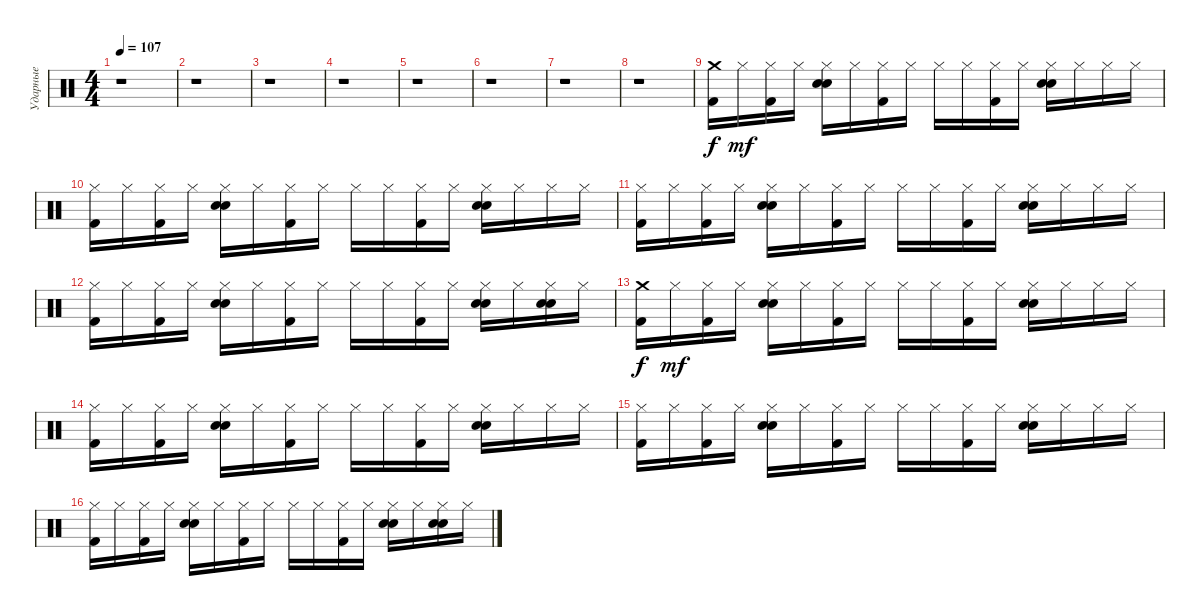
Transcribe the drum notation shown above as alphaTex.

\track ("Ударные" "Ударные") {instrument percussion}
\staff {score}
\articulation defaults
\ts (4 4)
\tempo 107
\clef neutral
\ks c
r.1{dy f} |
r.1 |
r.1 |
r.1 |
r.1 |
r.1 |
r.1 |
r.1 |
("Kick (hit) 2" "Crash medium (hit)").16 "Hi-Hat (closed)".16{dy mf} ("Kick (hit) 2" "Hi-Hat (closed)").16 "Hi-Hat (closed)".16 ("Snare (hit) 2" "Hand Clap (hit)" "Hi-Hat (closed)").16 "Hi-Hat (closed)".16 ("Kick (hit) 2" "Hi-Hat (closed)").16 "Hi-Hat (closed)".16 "Hi-Hat (closed)".16 "Hi-Hat (closed)".16 ("Kick (hit) 2" "Hi-Hat (closed)").16 "Hi-Hat (closed)".16 ("Snare (hit) 2" "Hand Clap (hit)" "Hi-Hat (closed)").16 "Hi-Hat (closed)".16 "Hi-Hat (closed)".16 "Hi-Hat (closed)".16 |
("Kick (hit) 2" "Hi-Hat (closed)").16 "Hi-Hat (closed)".16 ("Kick (hit) 2" "Hi-Hat (closed)").16 "Hi-Hat (closed)".16 ("Snare (hit) 2" "Hand Clap (hit)" "Hi-Hat (closed)").16 "Hi-Hat (closed)".16 ("Kick (hit) 2" "Hi-Hat (closed)").16 "Hi-Hat (closed)".16 "Hi-Hat (closed)".16 "Hi-Hat (closed)".16 ("Kick (hit) 2" "Hi-Hat (closed)").16 "Hi-Hat (closed)".16 ("Snare (hit) 2" "Hand Clap (hit)" "Hi-Hat (closed)").16 "Hi-Hat (closed)".16 "Hi-Hat (closed)".16 "Hi-Hat (closed)".16 |
("Kick (hit) 2" "Hi-Hat (closed)").16 "Hi-Hat (closed)".16 ("Kick (hit) 2" "Hi-Hat (closed)").16 "Hi-Hat (closed)".16 ("Snare (hit) 2" "Hand Clap (hit)" "Hi-Hat (closed)").16 "Hi-Hat (closed)".16 ("Kick (hit) 2" "Hi-Hat (closed)").16 "Hi-Hat (closed)".16 "Hi-Hat (closed)".16 "Hi-Hat (closed)".16 ("Kick (hit) 2" "Hi-Hat (closed)").16 "Hi-Hat (closed)".16 ("Snare (hit) 2" "Hand Clap (hit)" "Hi-Hat (closed)").16 "Hi-Hat (closed)".16 "Hi-Hat (closed)".16 "Hi-Hat (closed)".16 |
("Kick (hit) 2" "Hi-Hat (closed)").16 "Hi-Hat (closed)".16 ("Kick (hit) 2" "Hi-Hat (closed)").16 "Hi-Hat (closed)".16 ("Snare (hit) 2" "Hand Clap (hit)" "Hi-Hat (closed)").16 "Hi-Hat (closed)".16 ("Kick (hit) 2" "Hi-Hat (closed)").16 "Hi-Hat (closed)".16 "Hi-Hat (closed)".16 "Hi-Hat (closed)".16 ("Kick (hit) 2" "Hi-Hat (closed)").16 "Hi-Hat (closed)".16 ("Snare (hit) 2" "Hand Clap (hit)" "Hi-Hat (closed)").16 "Hi-Hat (closed)".16 ("Snare (hit) 2" "Hand Clap (hit)" "Hi-Hat (closed)").16 "Hi-Hat (closed)".16 |
("Kick (hit) 2" "Crash medium (hit)").16{dy f} "Hi-Hat (closed)".16{dy mf} ("Kick (hit) 2" "Hi-Hat (closed)").16 "Hi-Hat (closed)".16 ("Snare (hit) 2" "Hand Clap (hit)" "Hi-Hat (closed)").16 "Hi-Hat (closed)".16 ("Kick (hit) 2" "Hi-Hat (closed)").16 "Hi-Hat (closed)".16 "Hi-Hat (closed)".16 "Hi-Hat (closed)".16 ("Kick (hit) 2" "Hi-Hat (closed)").16 "Hi-Hat (closed)".16 ("Snare (hit) 2" "Hand Clap (hit)" "Hi-Hat (closed)").16 "Hi-Hat (closed)".16 "Hi-Hat (closed)".16 "Hi-Hat (closed)".16 |
("Kick (hit) 2" "Hi-Hat (closed)").16 "Hi-Hat (closed)".16 ("Kick (hit) 2" "Hi-Hat (closed)").16 "Hi-Hat (closed)".16 ("Snare (hit) 2" "Hand Clap (hit)" "Hi-Hat (closed)").16 "Hi-Hat (closed)".16 ("Kick (hit) 2" "Hi-Hat (closed)").16 "Hi-Hat (closed)".16 "Hi-Hat (closed)".16 "Hi-Hat (closed)".16 ("Kick (hit) 2" "Hi-Hat (closed)").16 "Hi-Hat (closed)".16 ("Snare (hit) 2" "Hand Clap (hit)" "Hi-Hat (closed)").16 "Hi-Hat (closed)".16 "Hi-Hat (closed)".16 "Hi-Hat (closed)".16 |
("Kick (hit) 2" "Hi-Hat (closed)").16 "Hi-Hat (closed)".16 ("Kick (hit) 2" "Hi-Hat (closed)").16 "Hi-Hat (closed)".16 ("Snare (hit) 2" "Hand Clap (hit)" "Hi-Hat (closed)").16 "Hi-Hat (closed)".16 ("Kick (hit) 2" "Hi-Hat (closed)").16 "Hi-Hat (closed)".16 "Hi-Hat (closed)".16 "Hi-Hat (closed)".16 ("Kick (hit) 2" "Hi-Hat (closed)").16 "Hi-Hat (closed)".16 ("Snare (hit) 2" "Hand Clap (hit)" "Hi-Hat (closed)").16 "Hi-Hat (closed)".16 "Hi-Hat (closed)".16 "Hi-Hat (closed)".16 |
("Kick (hit) 2" "Hi-Hat (closed)").16 "Hi-Hat (closed)".16 ("Kick (hit) 2" "Hi-Hat (closed)").16 "Hi-Hat (closed)".16 ("Snare (hit) 2" "Hand Clap (hit)" "Hi-Hat (closed)").16 "Hi-Hat (closed)".16 ("Kick (hit) 2" "Hi-Hat (closed)").16 "Hi-Hat (closed)".16 "Hi-Hat (closed)".16 "Hi-Hat (closed)".16 ("Kick (hit) 2" "Hi-Hat (closed)").16 "Hi-Hat (closed)".16 ("Snare (hit) 2" "Hand Clap (hit)" "Hi-Hat (closed)").16 "Hi-Hat (closed)".16 ("Snare (hit) 2" "Hand Clap (hit)" "Hi-Hat (closed)").16 "Hi-Hat (closed)".16
